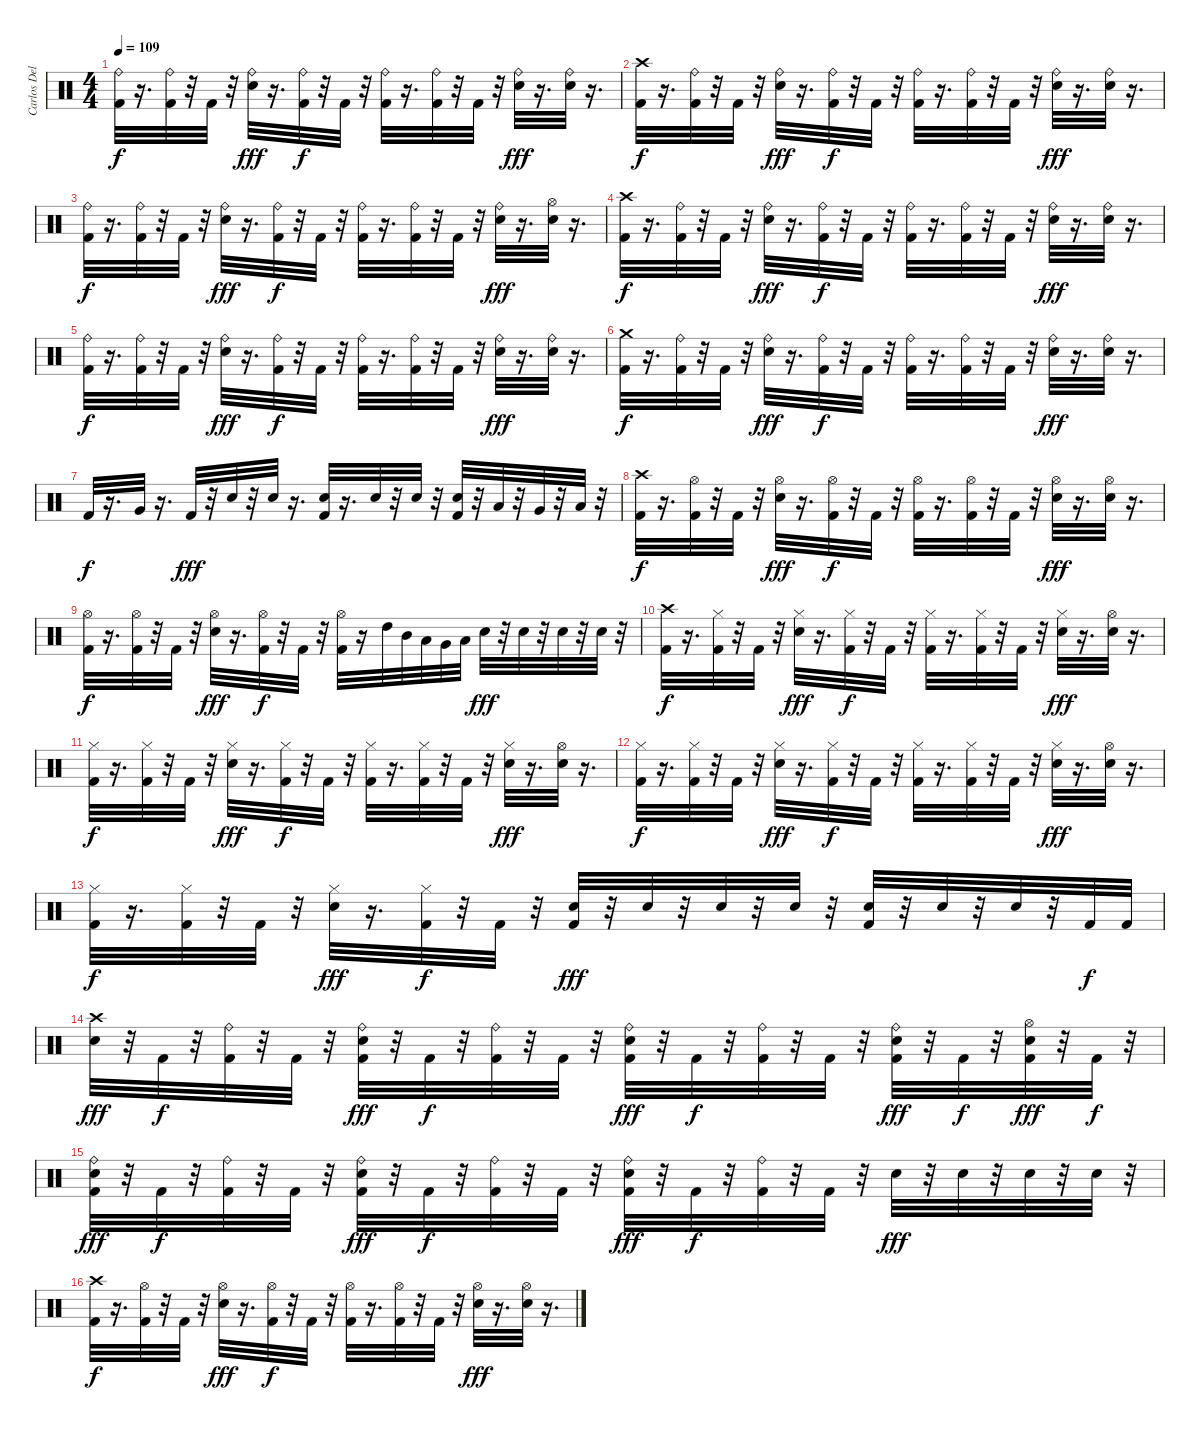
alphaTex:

\track ("Carlos Delgado" "Carlos Del") {instrument percussion}
\staff {score}
\articulation defaults
\ts (4 4)
\tempo 109
\clef neutral
\ks c
("Kick (hit) 2" "Ride (bell)").32{dy f} r.16{d} ("Ride (bell)" "Kick (hit) 2").32 r.32 "Kick (hit) 2".32 r.32 ("Ride (bell)" "Electric Snare (hit)").32{dy fff} r.16{d} ("Ride (bell)" "Kick (hit) 2").32{dy f} r.32 "Kick (hit) 2".32 r.32 ("Kick (hit) 2" "Ride (bell)").32 r.16{d} ("Kick (hit) 2" "Ride (bell)").32 r.32 "Kick (hit) 2".32 r.32 ("Electric Snare (hit)" "Ride (bell)").32{dy fff} r.16{d} ("Ride (bell)" "Electric Snare (hit)").32 r.16{d} |
("Crash high (hit)" "Kick (hit) 2").32{dy f} r.16{d} ("Kick (hit) 2" "Ride (bell)").32 r.32 "Kick (hit) 2".32 r.32 ("Ride (bell)" "Electric Snare (hit)").32{dy fff} r.16{d} ("Ride (bell)" "Kick (hit) 2").32{dy f} r.32 "Kick (hit) 2".32 r.32 ("Ride (bell)" "Kick (hit) 2").32 r.16{d} ("Kick (hit) 2" "Ride (bell)").32 r.32 "Kick (hit) 2".32 r.32 ("Ride (bell)" "Electric Snare (hit)").32{dy fff} r.16{d} ("Ride (bell)" "Electric Snare (hit)").32 r.16{d} |
("Ride (bell)" "Kick (hit) 2").32{dy f} r.16{d} ("Kick (hit) 2" "Ride (bell)").32 r.32 "Kick (hit) 2".32 r.32 ("Ride (bell)" "Electric Snare (hit)").32{dy fff} r.16{d} ("Kick (hit) 2" "Ride (bell)").32{dy f} r.32 "Kick (hit) 2".32 r.32 ("Ride (bell)" "Kick (hit) 2").32 r.16{d} ("Ride (bell)" "Kick (hit) 2").32 r.32 "Kick (hit) 2".32 r.32 ("Ride (bell)" "Electric Snare (hit)").32{dy fff} r.16{d} ("Hi-Hat (open)" "Electric Snare (hit)").32 r.16{d} |
("Kick (hit) 2" "Crash high (hit)").32{dy f} r.16{d} ("Kick (hit) 2" "Ride (bell)").32 r.32 "Kick (hit) 2".32 r.32 ("Ride (bell)" "Electric Snare (hit)").32{dy fff} r.16{d} ("Ride (bell)" "Kick (hit) 2").32{dy f} r.32 "Kick (hit) 2".32 r.32 ("Ride (bell)" "Kick (hit) 2").32 r.16{d} ("Kick (hit) 2" "Ride (bell)").32 r.32 "Kick (hit) 2".32 r.32 ("Ride (bell)" "Electric Snare (hit)").32{dy fff} r.16{d} ("Ride (bell)" "Electric Snare (hit)").32 r.16{d} |
("Ride (bell)" "Kick (hit) 2").32{dy f} r.16{d} ("Kick (hit) 2" "Ride (bell)").32 r.32 "Kick (hit) 2".32 r.32 ("Electric Snare (hit)" "Ride (bell)").32{dy fff} r.16{d} ("Ride (bell)" "Kick (hit) 2").32{dy f} r.32 "Kick (hit) 2".32 r.32 ("Ride (bell)" "Kick (hit) 2").32 r.16{d} ("Kick (hit) 2" "Ride (bell)").32 r.32 "Kick (hit) 2".32 r.32 ("Electric Snare (hit)" "Ride (bell)").32{dy fff} r.16{d} ("Ride (bell)" "Electric Snare (hit)").32 r.16{d} |
("Kick (hit) 2" "Crash medium (hit)").32{dy f} r.16{d} ("Ride (bell)" "Kick (hit) 2").32 r.32 "Kick (hit) 2".32 r.32 ("Ride (bell)" "Electric Snare (hit)").32{dy fff} r.16{d} ("Kick (hit) 2" "Ride (bell)").32{dy f} r.32 "Kick (hit) 2".32 r.32 ("Kick (hit) 2" "Ride (bell)").32 r.16{d} ("Ride (bell)" "Kick (hit) 2").32 r.32 "Kick (hit) 2".32 r.32 ("Ride (bell)" "Electric Snare (hit)").32{dy fff} r.16{d} ("Ride (bell)" "Electric Snare (hit)").32 r.16{d} |
"Kick (hit) 2".32{dy f} r.16{d} "Very Low Tom (hit)".32 r.16{d} "Kick (hit) 2".32{dy fff} r.32 "Electric Snare (hit)".32 r.32 "Electric Snare (hit)".32 r.16{d} ("Kick (hit) 2" "Electric Snare (hit)").32 r.16{d} "Electric Snare (hit)".32 r.32 "Electric Snare (hit)".32 r.32 ("Kick (hit) 2" "Electric Snare (hit)").32 r.32 "Low Tom (hit)".32 r.32 "Very Low Tom (hit)".32 r.32 "Low Floor Tom (hit)".32 r.32 |
("Crash high (hit)" "Kick (hit) 2").32{dy f} r.16{d} ("Kick (hit) 2" "Hi-Hat (open)").32 r.32 "Kick (hit) 2".32 r.32 ("Hi-Hat (open)" "Electric Snare (hit)").32{dy fff} r.16{d} ("Kick (hit) 2" "Hi-Hat (open)").32{dy f} r.32 "Kick (hit) 2".32 r.32 ("Hi-Hat (open)" "Kick (hit) 2").32 r.16{d} ("Kick (hit) 2" "Hi-Hat (open)").32 r.32 "Kick (hit) 2".32 r.32 ("Electric Snare (hit)" "Hi-Hat (open)").32{dy fff} r.16{d} ("Hi-Hat (open)" "Electric Snare (hit)").32 r.16{d} |
("Kick (hit) 2" "Hi-Hat (open)").32{dy f} r.16{d} ("Kick (hit) 2" "Hi-Hat (open)").32 r.32 "Kick (hit) 2".32 r.32 ("Electric Snare (hit)" "Hi-Hat (open)").32{dy fff} r.16{d} ("Hi-Hat (open)" "Kick (hit) 2").32{dy f} r.32 "Kick (hit) 2".32 r.32 ("Kick (hit) 2" "Hi-Hat (open)").32 r.16 "High Tom (hit)".32 "Mid Tom (hit)".32 "Low Tom (hit)".32 "Very Low Tom (hit)".32 "Low Floor Tom (hit)".32 "Electric Snare (hit)".32{dy fff} r.32 "Electric Snare (hit)".32 r.32 "Electric Snare (hit)".32 r.32 "Electric Snare (hit)".32 r.32 |
("Crash high (hit)" "Kick (hit) 2").32{dy f} r.16{d} ("Hi-Hat (closed)" "Kick (hit) 2").32 r.32 "Kick (hit) 2".32 r.32 ("Electric Snare (hit)" "Hi-Hat (closed)").32{dy fff} r.16{d} ("Kick (hit) 2" "Hi-Hat (closed)").32{dy f} r.32 "Kick (hit) 2".32 r.32 ("Hi-Hat (closed)" "Kick (hit) 2").32 r.16{d} ("Kick (hit) 2" "Hi-Hat (closed)").32 r.32 "Kick (hit) 2".32 r.32 ("Hi-Hat (closed)" "Electric Snare (hit)").32{dy fff} r.16{d} ("Electric Snare (hit)" "Hi-Hat (open)").32 r.16{d} |
("Kick (hit) 2" "Hi-Hat (closed)").32{dy f} r.16{d} ("Kick (hit) 2" "Hi-Hat (closed)").32 r.32 "Kick (hit) 2".32 r.32 ("Hi-Hat (closed)" "Electric Snare (hit)").32{dy fff} r.16{d} ("Kick (hit) 2" "Hi-Hat (closed)").32{dy f} r.32 "Kick (hit) 2".32 r.32 ("Kick (hit) 2" "Hi-Hat (closed)").32 r.16{d} ("Kick (hit) 2" "Hi-Hat (closed)").32 r.32 "Kick (hit) 2".32 r.32 ("Electric Snare (hit)" "Hi-Hat (closed)").32{dy fff} r.16{d} ("Hi-Hat (open)" "Electric Snare (hit)").32 r.16{d} |
("Kick (hit) 2" "Hi-Hat (closed)").32{dy f} r.16{d} ("Hi-Hat (closed)" "Kick (hit) 2").32 r.32 "Kick (hit) 2".32 r.32 ("Electric Snare (hit)" "Hi-Hat (closed)").32{dy fff} r.16{d} ("Hi-Hat (closed)" "Kick (hit) 2").32{dy f} r.32 "Kick (hit) 2".32 r.32 ("Hi-Hat (closed)" "Kick (hit) 2").32 r.16{d} ("Kick (hit) 2" "Hi-Hat (closed)").32 r.32 "Kick (hit) 2".32 r.32 ("Hi-Hat (closed)" "Electric Snare (hit)").32{dy fff} r.16{d} ("Hi-Hat (open)" "Electric Snare (hit)").32 r.16{d} |
("Hi-Hat (closed)" "Kick (hit) 2").32{dy f} r.16{d} ("Hi-Hat (closed)" "Kick (hit) 2").32 r.32 "Kick (hit) 2".32 r.32 ("Hi-Hat (closed)" "Electric Snare (hit)").32{dy fff} r.16{d} ("Kick (hit) 2" "Hi-Hat (closed)").32{dy f} r.32 "Kick (hit) 2".32 r.32 ("Electric Snare (hit)" "Kick (hit) 2").32{dy fff} r.32 "Electric Snare (hit)".32 r.32 "Electric Snare (hit)".32 r.32 "Electric Snare (hit)".32 r.32 ("Electric Snare (hit)" "Kick (hit) 2").32 r.32 "Electric Snare (hit)".32 r.32 "Electric Snare (hit)".32 r.32 "Kick (hit) 2".32{dy f} "Kick (hit) 2".32 |
("Electric Snare (hit)" "Crash high (hit)").32{dy fff} r.32 "Kick (hit) 2".32{dy f} r.32 ("Ride (bell)" "Kick (hit) 2").32 r.32 "Kick (hit) 2".32 r.32 ("Ride (bell)" "Electric Snare (hit)" "Kick (hit) 2").32{dy fff} r.32 "Kick (hit) 2".32{dy f} r.32 ("Kick (hit) 2" "Ride (bell)").32 r.32 "Kick (hit) 2".32 r.32 ("Ride (bell)" "Kick (hit) 2" "Electric Snare (hit)").32{dy fff} r.32 "Kick (hit) 2".32{dy f} r.32 ("Kick (hit) 2" "Ride (bell)").32 r.32 "Kick (hit) 2".32 r.32 ("Kick (hit) 2" "Ride (bell)" "Electric Snare (hit)").32{dy fff} r.32 "Kick (hit) 2".32{dy f} r.32 ("Electric Snare (hit)" "Hi-Hat (open)" "Kick (hit) 2").32{dy fff} r.32 "Kick (hit) 2".32{dy f} r.32 |
("Kick (hit) 2" "Electric Snare (hit)" "Ride (bell)").32{dy fff} r.32 "Kick (hit) 2".32{dy f} r.32 ("Ride (bell)" "Kick (hit) 2").32 r.32 "Kick (hit) 2".32 r.32 ("Kick (hit) 2" "Ride (bell)" "Electric Snare (hit)").32{dy fff} r.32 "Kick (hit) 2".32{dy f} r.32 ("Ride (bell)" "Kick (hit) 2").32 r.32 "Kick (hit) 2".32 r.32 ("Kick (hit) 2" "Ride (bell)" "Electric Snare (hit)").32{dy fff} r.32 "Kick (hit) 2".32{dy f} r.32 ("Kick (hit) 2" "Ride (bell)").32 r.32 "Kick (hit) 2".32 r.32 "Electric Snare (hit)".32{dy fff} r.32 "Electric Snare (hit)".32 r.32 "Electric Snare (hit)".32 r.32 "Electric Snare (hit)".32 r.32 |
("Crash high (hit)" "Kick (hit) 2").32{dy f} r.16{d} ("Kick (hit) 2" "Hi-Hat (open)").32 r.32 "Kick (hit) 2".32 r.32 ("Hi-Hat (open)" "Electric Snare (hit)").32{dy fff} r.16{d} ("Hi-Hat (open)" "Kick (hit) 2").32{dy f} r.32 "Kick (hit) 2".32 r.32 ("Hi-Hat (open)" "Kick (hit) 2").32 r.16{d} ("Hi-Hat (open)" "Kick (hit) 2").32 r.32 "Kick (hit) 2".32 r.32 ("Hi-Hat (open)" "Electric Snare (hit)").32{dy fff} r.16{d} ("Hi-Hat (open)" "Electric Snare (hit)").32 r.16{d}
